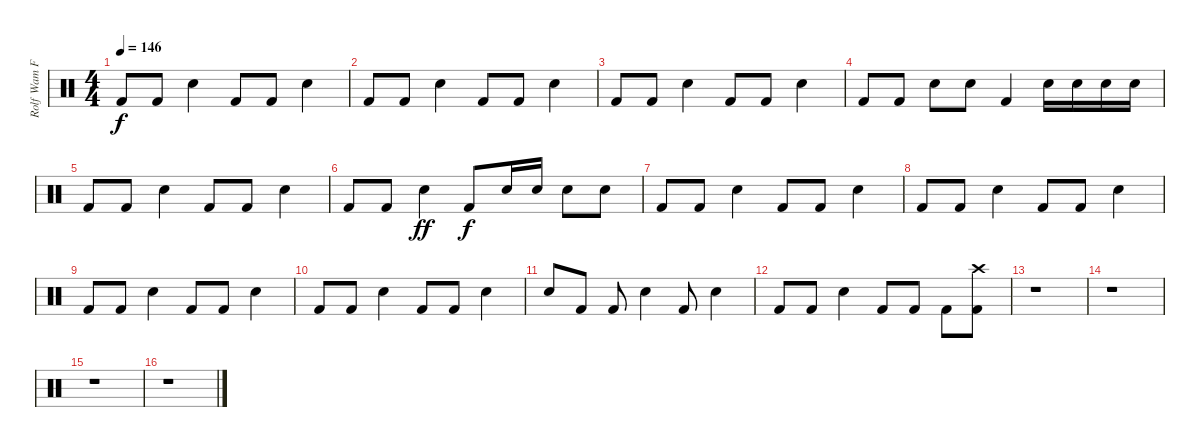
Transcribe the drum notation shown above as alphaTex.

\track ("Rolf Wam Fjell" "Rolf Wam F") {instrument percussion}
\staff {score}
\articulation defaults
\ts (4 4)
\tempo 146
\clef neutral
\ks c "Kick (hit) 2".8{dy f} "Kick (hit) 2".8 "Electric Snare (hit)".4 "Kick (hit) 2".8 "Kick (hit) 2".8 "Electric Snare (hit)".4
|
"Kick (hit) 2".8 "Kick (hit) 2".8 "Electric Snare (hit)".4 "Kick (hit) 2".8 "Kick (hit) 2".8 "Electric Snare (hit)".4 |
"Kick (hit) 2".8 "Kick (hit) 2".8 "Electric Snare (hit)".4 "Kick (hit) 2".8 "Kick (hit) 2".8 "Electric Snare (hit)".4 |
"Kick (hit) 2".8 "Kick (hit) 2".8 "Electric Snare (hit)".8 "Electric Snare (hit)".8 "Kick (hit) 2".4 "Electric Snare (hit)".16 "Electric Snare (hit)".16 "Electric Snare (hit)".16 "Electric Snare (hit)".16 |
"Kick (hit) 2".8 "Kick (hit) 2".8 "Electric Snare (hit)".4 "Kick (hit) 2".8 "Kick (hit) 2".8 "Electric Snare (hit)".4 |
"Kick (hit) 2".8 "Kick (hit) 2".8 "Electric Snare (hit)".4{dy ff} "Kick (hit) 2".8{dy f} "Electric Snare (hit)".16 "Electric Snare (hit)".16 "Electric Snare (hit)".8 "Electric Snare (hit)".8 |
"Kick (hit) 2".8 "Kick (hit) 2".8 "Electric Snare (hit)".4 "Kick (hit) 2".8 "Kick (hit) 2".8 "Electric Snare (hit)".4 |
"Kick (hit) 2".8 "Kick (hit) 2".8 "Electric Snare (hit)".4 "Kick (hit) 2".8 "Kick (hit) 2".8 "Electric Snare (hit)".4 |
"Kick (hit) 2".8 "Kick (hit) 2".8 "Electric Snare (hit)".4 "Kick (hit) 2".8 "Kick (hit) 2".8 "Electric Snare (hit)".4 |
"Kick (hit) 2".8 "Kick (hit) 2".8 "Electric Snare (hit)".4 "Kick (hit) 2".8 "Kick (hit) 2".8 "Electric Snare (hit)".4 |
"Electric Snare (hit)".8 "Kick (hit) 2".8 "Kick (hit) 2".8 "Electric Snare (hit)".4 "Kick (hit) 2".8 "Electric Snare (hit)".4 |
"Kick (hit) 2".8 "Kick (hit) 2".8 "Electric Snare (hit)".4 "Kick (hit) 2".8 "Kick (hit) 2".8 "Kick (hit) 2".8 ("Kick (hit) 2" "Crash high (hit)").8 |
r.1 |
r.1 |
r.1 |
r.1
